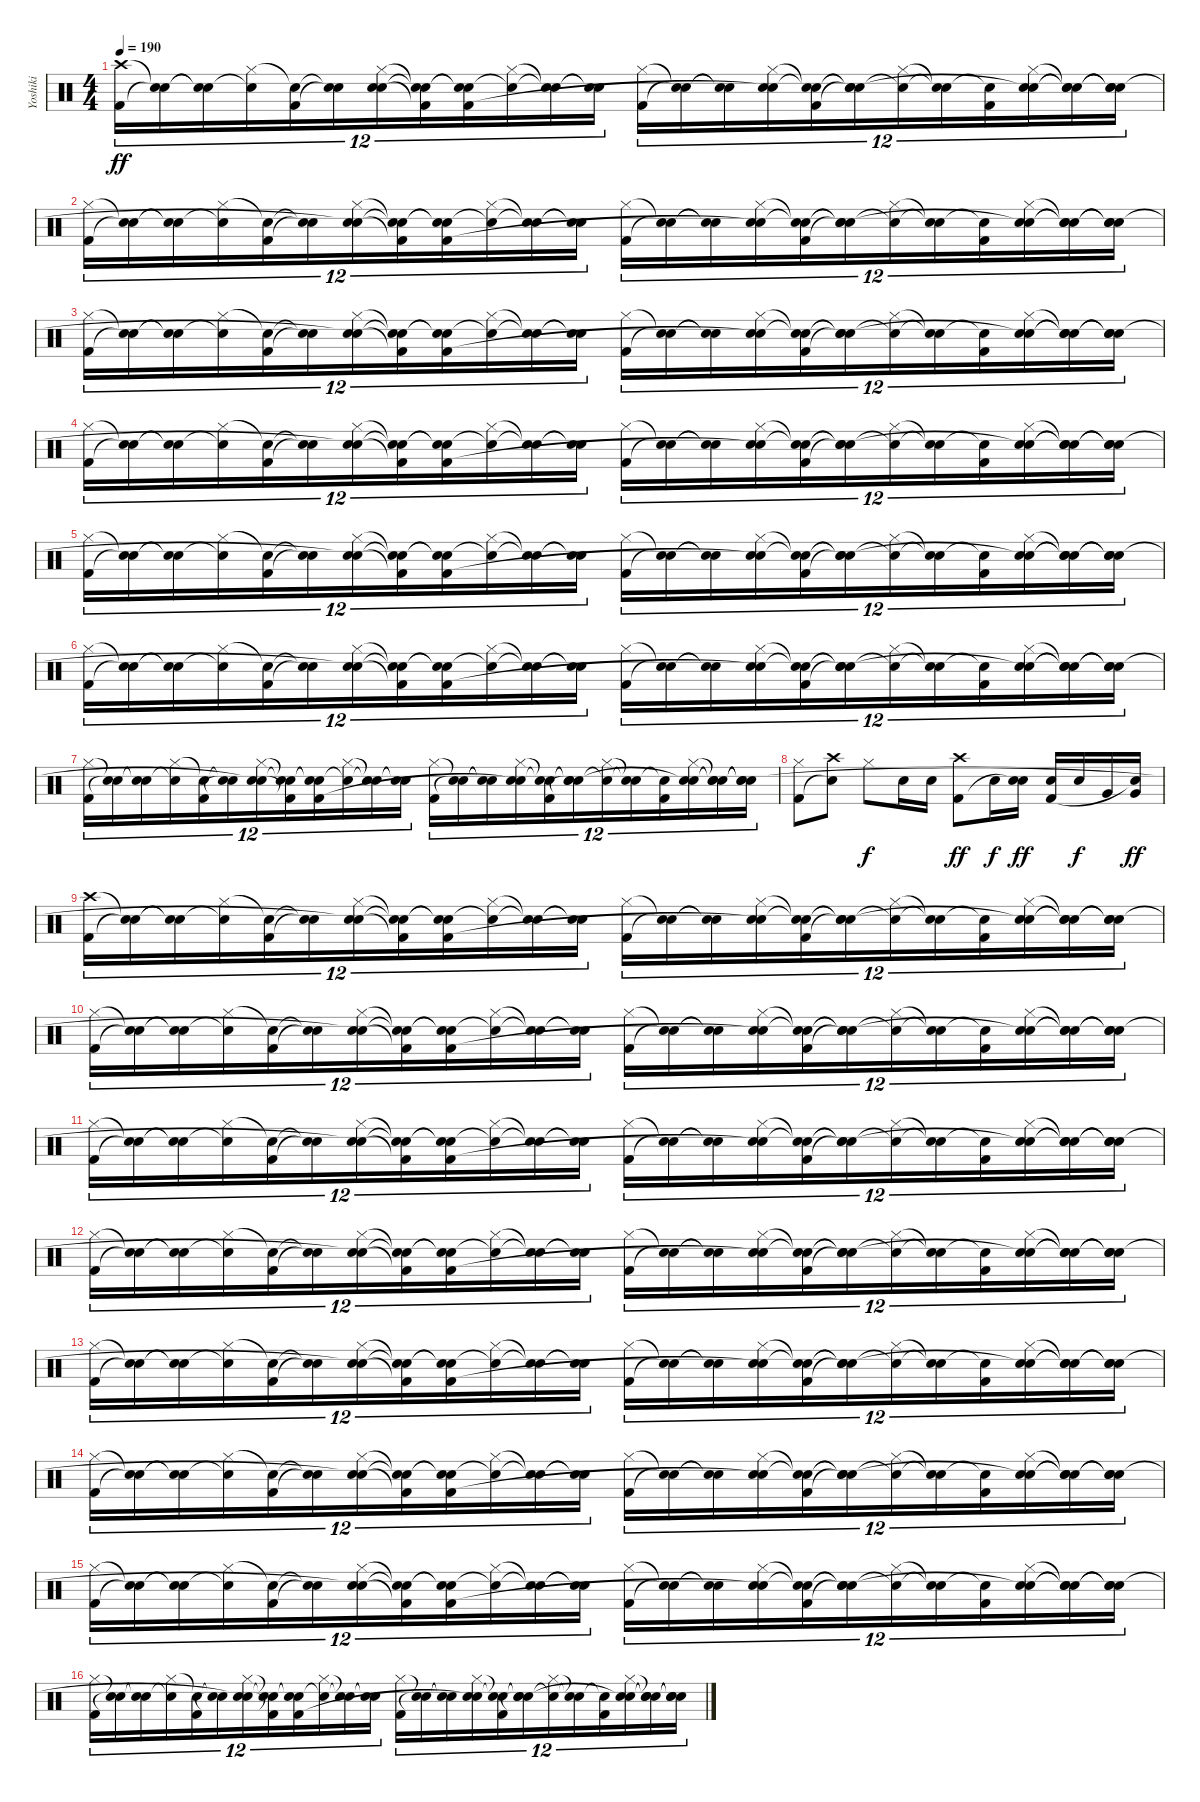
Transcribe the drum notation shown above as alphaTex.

\track ("Yoshiki" "Yoshiki") {instrument percussion}
\staff {score}
\articulation defaults
\ts (4 4)
\tempo 190
\clef neutral
\ks c
("Crash high (hit)" "Kick (hit) 2").16{tu (12 8) dy ff} ("Snare (hit)"{t} "Snare (hit)"{t}).16{tu (12 8)} ("Snare (hit)"{t} "Snare (hit)"{t}).16{tu (12 8)} ("Hi-Hat (closed)" "Snare (hit)"{t}).16{tu (12 8)} ("Snare (hit)"{t} "Kick (hit) 2").16{tu (12 8)} ("Snare (hit)"{t} "Snare (hit)"{t}).16{tu (12 8)} ("Hi-Hat (closed)" "Snare (hit) 2" "Snare (hit)"{t}).16{tu (12 8)} ("Snare (hit)"{t} "Snare (hit)"{t} "Kick (hit) 2"{t}).16{tu (12 8)} ("Snare (hit)"{t} "Snare (hit)"{t} "Kick (hit) 2").16{tu (12 8)} ("Hi-Hat (closed)" "Snare (hit)"{t}).16{tu (12 8)} ("Snare (hit)"{t} "Snare (hit)"{t}).16{tu (12 8)} ("Snare (hit)"{t} "Snare (hit)"{t}).16{tu (12 8)} ("Hi-Hat (closed)" "Kick (hit) 2").16{tu (12 8)} ("Snare (hit)"{t} "Snare (hit)"{t}).16{tu (12 8)} ("Snare (hit)"{t} "Snare (hit)"{t}).16{tu (12 8)} ("Hi-Hat (closed)" "Snare (hit) 2" "Snare (hit)"{t}).16{tu (12 8)} ("Snare (hit)"{t} "Snare (hit)"{t} "Kick (hit) 2").16{tu (12 8)} ("Snare (hit)"{t} "Snare (hit)"{t} "Snare (hit)"{t}).16{tu (12 8)} ("Hi-Hat (closed)" "Snare (hit)"{t}).16{tu (12 8)} ("Snare (hit)"{t} "Snare (hit)"{t}).16{tu (12 8)} ("Snare (hit)"{t} "Kick (hit) 2").16{tu (12 8)} ("Hi-Hat (closed)" "Snare (hit) 2" "Snare (hit)"{t}).16{tu (12 8)} ("Snare (hit)"{t} "Snare (hit)"{t} "Snare (hit)"{t}).16{tu (12 8)} ("Snare (hit)"{t} "Snare (hit)"{t} "Snare (hit)"{t}).16{tu (12 8)} |
("Hi-Hat (closed)" "Kick (hit) 2").16{tu (12 8)} ("Snare (hit)"{t} "Snare (hit)"{t}).16{tu (12 8)} ("Snare (hit)"{t} "Snare (hit)"{t}).16{tu (12 8)} ("Hi-Hat (closed)" "Snare (hit)"{t}).16{tu (12 8)} ("Snare (hit)"{t} "Kick (hit) 2").16{tu (12 8)} ("Snare (hit)"{t} "Snare (hit)"{t}).16{tu (12 8)} ("Hi-Hat (closed)" "Snare (hit) 2" "Snare (hit)"{t}).16{tu (12 8)} ("Snare (hit)"{t} "Snare (hit)"{t} "Kick (hit) 2"{t}).16{tu (12 8)} ("Snare (hit)"{t} "Snare (hit)"{t} "Kick (hit) 2").16{tu (12 8)} ("Hi-Hat (closed)" "Snare (hit)"{t}).16{tu (12 8)} ("Snare (hit)"{t} "Snare (hit)"{t}).16{tu (12 8)} ("Snare (hit)"{t} "Snare (hit)"{t}).16{tu (12 8)} ("Hi-Hat (closed)" "Kick (hit) 2").16{tu (12 8)} ("Snare (hit)"{t} "Snare (hit)"{t}).16{tu (12 8)} ("Snare (hit)"{t} "Snare (hit)"{t}).16{tu (12 8)} ("Hi-Hat (closed)" "Snare (hit) 2" "Snare (hit)"{t}).16{tu (12 8)} ("Snare (hit)"{t} "Snare (hit)"{t} "Kick (hit) 2").16{tu (12 8)} ("Snare (hit)"{t} "Snare (hit)"{t} "Snare (hit)"{t}).16{tu (12 8)} ("Hi-Hat (closed)" "Snare (hit)"{t}).16{tu (12 8)} ("Snare (hit)"{t} "Snare (hit)"{t}).16{tu (12 8)} ("Snare (hit)"{t} "Kick (hit) 2").16{tu (12 8)} ("Hi-Hat (closed)" "Snare (hit) 2" "Snare (hit)"{t}).16{tu (12 8)} ("Snare (hit)"{t} "Snare (hit)"{t} "Snare (hit)"{t}).16{tu (12 8)} ("Snare (hit)"{t} "Snare (hit)"{t} "Snare (hit)"{t}).16{tu (12 8)} |
("Hi-Hat (closed)" "Kick (hit) 2").16{tu (12 8)} ("Snare (hit)"{t} "Snare (hit)"{t}).16{tu (12 8)} ("Snare (hit)"{t} "Snare (hit)"{t}).16{tu (12 8)} ("Hi-Hat (closed)" "Snare (hit)"{t}).16{tu (12 8)} ("Snare (hit)"{t} "Kick (hit) 2").16{tu (12 8)} ("Snare (hit)"{t} "Snare (hit)"{t}).16{tu (12 8)} ("Hi-Hat (closed)" "Snare (hit) 2" "Snare (hit)"{t}).16{tu (12 8)} ("Snare (hit)"{t} "Snare (hit)"{t} "Kick (hit) 2"{t}).16{tu (12 8)} ("Snare (hit)"{t} "Snare (hit)"{t} "Kick (hit) 2").16{tu (12 8)} ("Hi-Hat (closed)" "Snare (hit)"{t}).16{tu (12 8)} ("Snare (hit)"{t} "Snare (hit)"{t}).16{tu (12 8)} ("Snare (hit)"{t} "Snare (hit)"{t}).16{tu (12 8)} ("Hi-Hat (closed)" "Kick (hit) 2").16{tu (12 8)} ("Snare (hit)"{t} "Snare (hit)"{t}).16{tu (12 8)} ("Snare (hit)"{t} "Snare (hit)"{t}).16{tu (12 8)} ("Hi-Hat (closed)" "Snare (hit) 2" "Snare (hit)"{t}).16{tu (12 8)} ("Snare (hit)"{t} "Snare (hit)"{t} "Kick (hit) 2").16{tu (12 8)} ("Snare (hit)"{t} "Snare (hit)"{t} "Snare (hit)"{t}).16{tu (12 8)} ("Hi-Hat (closed)" "Snare (hit)"{t}).16{tu (12 8)} ("Snare (hit)"{t} "Snare (hit)"{t}).16{tu (12 8)} ("Snare (hit)"{t} "Kick (hit) 2").16{tu (12 8)} ("Hi-Hat (closed)" "Snare (hit) 2" "Snare (hit)"{t}).16{tu (12 8)} ("Snare (hit)"{t} "Snare (hit)"{t} "Snare (hit)"{t}).16{tu (12 8)} ("Snare (hit)"{t} "Snare (hit)"{t} "Snare (hit)"{t}).16{tu (12 8)} |
("Hi-Hat (closed)" "Kick (hit) 2").16{tu (12 8)} ("Snare (hit)"{t} "Snare (hit)"{t}).16{tu (12 8)} ("Snare (hit)"{t} "Snare (hit)"{t}).16{tu (12 8)} ("Hi-Hat (closed)" "Snare (hit)"{t}).16{tu (12 8)} ("Snare (hit)"{t} "Kick (hit) 2").16{tu (12 8)} ("Snare (hit)"{t} "Snare (hit)"{t}).16{tu (12 8)} ("Hi-Hat (closed)" "Snare (hit) 2" "Snare (hit)"{t}).16{tu (12 8)} ("Snare (hit)"{t} "Snare (hit)"{t} "Kick (hit) 2"{t}).16{tu (12 8)} ("Snare (hit)"{t} "Snare (hit)"{t} "Kick (hit) 2").16{tu (12 8)} ("Hi-Hat (closed)" "Snare (hit)"{t}).16{tu (12 8)} ("Snare (hit)"{t} "Snare (hit)"{t}).16{tu (12 8)} ("Snare (hit)"{t} "Snare (hit)"{t}).16{tu (12 8)} ("Hi-Hat (closed)" "Kick (hit) 2").16{tu (12 8)} ("Snare (hit)"{t} "Snare (hit)"{t}).16{tu (12 8)} ("Snare (hit)"{t} "Snare (hit)"{t}).16{tu (12 8)} ("Hi-Hat (closed)" "Snare (hit) 2" "Snare (hit)"{t}).16{tu (12 8)} ("Snare (hit)"{t} "Snare (hit)"{t} "Kick (hit) 2").16{tu (12 8)} ("Snare (hit)"{t} "Snare (hit)"{t} "Snare (hit)"{t}).16{tu (12 8)} ("Hi-Hat (closed)" "Snare (hit)"{t}).16{tu (12 8)} ("Snare (hit)"{t} "Snare (hit)"{t}).16{tu (12 8)} ("Snare (hit)"{t} "Kick (hit) 2").16{tu (12 8)} ("Hi-Hat (closed)" "Snare (hit) 2" "Snare (hit)"{t}).16{tu (12 8)} ("Snare (hit)"{t} "Snare (hit)"{t} "Snare (hit)"{t}).16{tu (12 8)} ("Snare (hit)"{t} "Snare (hit)"{t} "Snare (hit)"{t}).16{tu (12 8)} |
("Hi-Hat (closed)" "Kick (hit) 2").16{tu (12 8)} ("Snare (hit)"{t} "Snare (hit)"{t}).16{tu (12 8)} ("Snare (hit)"{t} "Snare (hit)"{t}).16{tu (12 8)} ("Hi-Hat (closed)" "Snare (hit)"{t}).16{tu (12 8)} ("Snare (hit)"{t} "Kick (hit) 2").16{tu (12 8)} ("Snare (hit)"{t} "Snare (hit)"{t}).16{tu (12 8)} ("Hi-Hat (closed)" "Snare (hit) 2" "Snare (hit)"{t}).16{tu (12 8)} ("Snare (hit)"{t} "Snare (hit)"{t} "Kick (hit) 2"{t}).16{tu (12 8)} ("Snare (hit)"{t} "Snare (hit)"{t} "Kick (hit) 2").16{tu (12 8)} ("Hi-Hat (closed)" "Snare (hit)"{t}).16{tu (12 8)} ("Snare (hit)"{t} "Snare (hit)"{t}).16{tu (12 8)} ("Snare (hit)"{t} "Snare (hit)"{t}).16{tu (12 8)} ("Hi-Hat (closed)" "Kick (hit) 2").16{tu (12 8)} ("Snare (hit)"{t} "Snare (hit)"{t}).16{tu (12 8)} ("Snare (hit)"{t} "Snare (hit)"{t}).16{tu (12 8)} ("Hi-Hat (closed)" "Snare (hit) 2" "Snare (hit)"{t}).16{tu (12 8)} ("Snare (hit)"{t} "Snare (hit)"{t} "Kick (hit) 2").16{tu (12 8)} ("Snare (hit)"{t} "Snare (hit)"{t} "Snare (hit)"{t}).16{tu (12 8)} ("Hi-Hat (closed)" "Snare (hit)"{t}).16{tu (12 8)} ("Snare (hit)"{t} "Snare (hit)"{t}).16{tu (12 8)} ("Snare (hit)"{t} "Kick (hit) 2").16{tu (12 8)} ("Hi-Hat (closed)" "Snare (hit) 2" "Snare (hit)"{t}).16{tu (12 8)} ("Snare (hit)"{t} "Snare (hit)"{t} "Snare (hit)"{t}).16{tu (12 8)} ("Snare (hit)"{t} "Snare (hit)"{t} "Snare (hit)"{t}).16{tu (12 8)} |
("Hi-Hat (closed)" "Kick (hit) 2").16{tu (12 8)} ("Snare (hit)"{t} "Snare (hit)"{t}).16{tu (12 8)} ("Snare (hit)"{t} "Snare (hit)"{t}).16{tu (12 8)} ("Hi-Hat (closed)" "Snare (hit)"{t}).16{tu (12 8)} ("Snare (hit)"{t} "Kick (hit) 2").16{tu (12 8)} ("Snare (hit)"{t} "Snare (hit)"{t}).16{tu (12 8)} ("Hi-Hat (closed)" "Snare (hit) 2" "Snare (hit)"{t}).16{tu (12 8)} ("Snare (hit)"{t} "Snare (hit)"{t} "Kick (hit) 2"{t}).16{tu (12 8)} ("Snare (hit)"{t} "Snare (hit)"{t} "Kick (hit) 2").16{tu (12 8)} ("Hi-Hat (closed)" "Snare (hit)"{t}).16{tu (12 8)} ("Snare (hit)"{t} "Snare (hit)"{t}).16{tu (12 8)} ("Snare (hit)"{t} "Snare (hit)"{t}).16{tu (12 8)} ("Hi-Hat (closed)" "Kick (hit) 2").16{tu (12 8)} ("Snare (hit)"{t} "Snare (hit)"{t}).16{tu (12 8)} ("Snare (hit)"{t} "Snare (hit)"{t}).16{tu (12 8)} ("Hi-Hat (closed)" "Snare (hit) 2" "Snare (hit)"{t}).16{tu (12 8)} ("Snare (hit)"{t} "Snare (hit)"{t} "Kick (hit) 2").16{tu (12 8)} ("Snare (hit)"{t} "Snare (hit)"{t} "Snare (hit)"{t}).16{tu (12 8)} ("Hi-Hat (closed)" "Snare (hit)"{t}).16{tu (12 8)} ("Snare (hit)"{t} "Snare (hit)"{t}).16{tu (12 8)} ("Snare (hit)"{t} "Kick (hit) 2").16{tu (12 8)} ("Hi-Hat (closed)" "Snare (hit) 2" "Snare (hit)"{t}).16{tu (12 8)} ("Snare (hit)"{t} "Snare (hit)"{t} "Snare (hit)"{t}).16{tu (12 8)} ("Snare (hit)"{t} "Snare (hit)"{t} "Snare (hit)"{t}).16{tu (12 8)} |
("Hi-Hat (closed)" "Kick (hit) 2").16{tu (12 8)} ("Snare (hit)"{t} "Snare (hit)"{t}).16{tu (12 8)} ("Snare (hit)"{t} "Snare (hit)"{t}).16{tu (12 8)} ("Hi-Hat (closed)" "Snare (hit)"{t}).16{tu (12 8)} ("Snare (hit)"{t} "Kick (hit) 2").16{tu (12 8)} ("Snare (hit)"{t} "Snare (hit)"{t}).16{tu (12 8)} ("Hi-Hat (closed)" "Snare (hit) 2" "Snare (hit)"{t}).16{tu (12 8)} ("Snare (hit)"{t} "Snare (hit)"{t} "Kick (hit) 2"{t}).16{tu (12 8)} ("Snare (hit)"{t} "Snare (hit)"{t} "Kick (hit) 2").16{tu (12 8)} ("Hi-Hat (closed)" "Snare (hit)"{t}).16{tu (12 8)} ("Snare (hit)"{t} "Snare (hit)"{t}).16{tu (12 8)} ("Snare (hit)"{t} "Snare (hit)"{t}).16{tu (12 8)} ("Hi-Hat (closed)" "Kick (hit) 2").16{tu (12 8)} ("Snare (hit)"{t} "Snare (hit)"{t}).16{tu (12 8)} ("Snare (hit)"{t} "Snare (hit)"{t}).16{tu (12 8)} ("Hi-Hat (closed)" "Snare (hit) 2" "Snare (hit)"{t}).16{tu (12 8)} ("Snare (hit)"{t} "Snare (hit)"{t} "Kick (hit) 2").16{tu (12 8)} ("Snare (hit)"{t} "Snare (hit)"{t} "Snare (hit)"{t}).16{tu (12 8)} ("Hi-Hat (closed)" "Snare (hit)"{t}).16{tu (12 8)} ("Snare (hit)"{t} "Snare (hit)"{t}).16{tu (12 8)} ("Snare (hit)"{t} "Kick (hit) 2").16{tu (12 8)} ("Hi-Hat (closed)" "Snare (hit) 2" "Snare (hit)"{t}).16{tu (12 8)} ("Snare (hit)"{t} "Snare (hit)"{t} "Snare (hit)"{t}).16{tu (12 8)} ("Snare (hit)"{t} "Snare (hit)"{t} "Snare (hit)"{t}).16{tu (12 8)} |
("Hi-Hat (closed)" "Kick (hit) 2").8 ("Crash high (hit)" "Snare (hit)"{t}).8 "Hi-Hat (closed)".8{dy f} "Snare (hit) 2".16 "Snare (hit) 2".16 ("Crash high (hit)" "Kick (hit) 2").8{dy ff} "Snare (hit) 2".16{dy f} ("Snare (hit) 2" "Snare (hit)"{t}).16{dy ff} ("Snare (hit) 2" "Kick (hit) 2").16 "Snare (hit) 2".16{dy f} "Very Low Tom (hit)".16 ("Very Low Tom (hit)" "Snare (hit)"{t}).16{dy ff} |
("Crash high (hit)" "Kick (hit) 2").16{tu (12 8)} ("Snare (hit)"{t} "Snare (hit)"{t}).16{tu (12 8)} ("Snare (hit)"{t} "Snare (hit)"{t}).16{tu (12 8)} ("Hi-Hat (closed)" "Snare (hit)"{t}).16{tu (12 8)} ("Snare (hit)"{t} "Kick (hit) 2").16{tu (12 8)} ("Snare (hit)"{t} "Snare (hit)"{t}).16{tu (12 8)} ("Hi-Hat (closed)" "Snare (hit) 2" "Snare (hit)"{t}).16{tu (12 8)} ("Snare (hit)"{t} "Snare (hit)"{t} "Kick (hit) 2"{t}).16{tu (12 8)} ("Snare (hit)"{t} "Snare (hit)"{t} "Kick (hit) 2").16{tu (12 8)} ("Hi-Hat (closed)" "Snare (hit)"{t}).16{tu (12 8)} ("Snare (hit)"{t} "Snare (hit)"{t}).16{tu (12 8)} ("Snare (hit)"{t} "Snare (hit)"{t}).16{tu (12 8)} ("Hi-Hat (closed)" "Kick (hit) 2").16{tu (12 8)} ("Snare (hit)"{t} "Snare (hit)"{t}).16{tu (12 8)} ("Snare (hit)"{t} "Snare (hit)"{t}).16{tu (12 8)} ("Hi-Hat (closed)" "Snare (hit) 2" "Snare (hit)"{t}).16{tu (12 8)} ("Snare (hit)"{t} "Snare (hit)"{t} "Kick (hit) 2").16{tu (12 8)} ("Snare (hit)"{t} "Snare (hit)"{t} "Snare (hit)"{t}).16{tu (12 8)} ("Hi-Hat (closed)" "Snare (hit)"{t}).16{tu (12 8)} ("Snare (hit)"{t} "Snare (hit)"{t}).16{tu (12 8)} ("Snare (hit)"{t} "Kick (hit) 2").16{tu (12 8)} ("Hi-Hat (closed)" "Snare (hit) 2" "Snare (hit)"{t}).16{tu (12 8)} ("Snare (hit)"{t} "Snare (hit)"{t} "Snare (hit)"{t}).16{tu (12 8)} ("Snare (hit)"{t} "Snare (hit)"{t} "Snare (hit)"{t}).16{tu (12 8)} |
("Hi-Hat (closed)" "Kick (hit) 2").16{tu (12 8)} ("Snare (hit)"{t} "Snare (hit)"{t}).16{tu (12 8)} ("Snare (hit)"{t} "Snare (hit)"{t}).16{tu (12 8)} ("Hi-Hat (closed)" "Snare (hit)"{t}).16{tu (12 8)} ("Snare (hit)"{t} "Kick (hit) 2").16{tu (12 8)} ("Snare (hit)"{t} "Snare (hit)"{t}).16{tu (12 8)} ("Hi-Hat (closed)" "Snare (hit) 2" "Snare (hit)"{t}).16{tu (12 8)} ("Snare (hit)"{t} "Snare (hit)"{t} "Kick (hit) 2"{t}).16{tu (12 8)} ("Snare (hit)"{t} "Snare (hit)"{t} "Kick (hit) 2").16{tu (12 8)} ("Hi-Hat (closed)" "Snare (hit)"{t}).16{tu (12 8)} ("Snare (hit)"{t} "Snare (hit)"{t}).16{tu (12 8)} ("Snare (hit)"{t} "Snare (hit)"{t}).16{tu (12 8)} ("Hi-Hat (closed)" "Kick (hit) 2").16{tu (12 8)} ("Snare (hit)"{t} "Snare (hit)"{t}).16{tu (12 8)} ("Snare (hit)"{t} "Snare (hit)"{t}).16{tu (12 8)} ("Hi-Hat (closed)" "Snare (hit) 2" "Snare (hit)"{t}).16{tu (12 8)} ("Snare (hit)"{t} "Snare (hit)"{t} "Kick (hit) 2").16{tu (12 8)} ("Snare (hit)"{t} "Snare (hit)"{t} "Snare (hit)"{t}).16{tu (12 8)} ("Hi-Hat (closed)" "Snare (hit)"{t}).16{tu (12 8)} ("Snare (hit)"{t} "Snare (hit)"{t}).16{tu (12 8)} ("Snare (hit)"{t} "Kick (hit) 2").16{tu (12 8)} ("Hi-Hat (closed)" "Snare (hit) 2" "Snare (hit)"{t}).16{tu (12 8)} ("Snare (hit)"{t} "Snare (hit)"{t} "Snare (hit)"{t}).16{tu (12 8)} ("Snare (hit)"{t} "Snare (hit)"{t} "Snare (hit)"{t}).16{tu (12 8)} |
("Hi-Hat (closed)" "Kick (hit) 2").16{tu (12 8)} ("Snare (hit)"{t} "Snare (hit)"{t}).16{tu (12 8)} ("Snare (hit)"{t} "Snare (hit)"{t}).16{tu (12 8)} ("Hi-Hat (closed)" "Snare (hit)"{t}).16{tu (12 8)} ("Snare (hit)"{t} "Kick (hit) 2").16{tu (12 8)} ("Snare (hit)"{t} "Snare (hit)"{t}).16{tu (12 8)} ("Hi-Hat (closed)" "Snare (hit) 2" "Snare (hit)"{t}).16{tu (12 8)} ("Snare (hit)"{t} "Snare (hit)"{t} "Kick (hit) 2"{t}).16{tu (12 8)} ("Snare (hit)"{t} "Snare (hit)"{t} "Kick (hit) 2").16{tu (12 8)} ("Hi-Hat (closed)" "Snare (hit)"{t}).16{tu (12 8)} ("Snare (hit)"{t} "Snare (hit)"{t}).16{tu (12 8)} ("Snare (hit)"{t} "Snare (hit)"{t}).16{tu (12 8)} ("Hi-Hat (closed)" "Kick (hit) 2").16{tu (12 8)} ("Snare (hit)"{t} "Snare (hit)"{t}).16{tu (12 8)} ("Snare (hit)"{t} "Snare (hit)"{t}).16{tu (12 8)} ("Hi-Hat (closed)" "Snare (hit) 2" "Snare (hit)"{t}).16{tu (12 8)} ("Snare (hit)"{t} "Snare (hit)"{t} "Kick (hit) 2").16{tu (12 8)} ("Snare (hit)"{t} "Snare (hit)"{t} "Snare (hit)"{t}).16{tu (12 8)} ("Hi-Hat (closed)" "Snare (hit)"{t}).16{tu (12 8)} ("Snare (hit)"{t} "Snare (hit)"{t}).16{tu (12 8)} ("Snare (hit)"{t} "Kick (hit) 2").16{tu (12 8)} ("Hi-Hat (closed)" "Snare (hit) 2" "Snare (hit)"{t}).16{tu (12 8)} ("Snare (hit)"{t} "Snare (hit)"{t} "Snare (hit)"{t}).16{tu (12 8)} ("Snare (hit)"{t} "Snare (hit)"{t} "Snare (hit)"{t}).16{tu (12 8)} |
("Hi-Hat (closed)" "Kick (hit) 2").16{tu (12 8)} ("Snare (hit)"{t} "Snare (hit)"{t}).16{tu (12 8)} ("Snare (hit)"{t} "Snare (hit)"{t}).16{tu (12 8)} ("Hi-Hat (closed)" "Snare (hit)"{t}).16{tu (12 8)} ("Snare (hit)"{t} "Kick (hit) 2").16{tu (12 8)} ("Snare (hit)"{t} "Snare (hit)"{t}).16{tu (12 8)} ("Hi-Hat (closed)" "Snare (hit) 2" "Snare (hit)"{t}).16{tu (12 8)} ("Snare (hit)"{t} "Snare (hit)"{t} "Kick (hit) 2"{t}).16{tu (12 8)} ("Snare (hit)"{t} "Snare (hit)"{t} "Kick (hit) 2").16{tu (12 8)} ("Hi-Hat (closed)" "Snare (hit)"{t}).16{tu (12 8)} ("Snare (hit)"{t} "Snare (hit)"{t}).16{tu (12 8)} ("Snare (hit)"{t} "Snare (hit)"{t}).16{tu (12 8)} ("Hi-Hat (closed)" "Kick (hit) 2").16{tu (12 8)} ("Snare (hit)"{t} "Snare (hit)"{t}).16{tu (12 8)} ("Snare (hit)"{t} "Snare (hit)"{t}).16{tu (12 8)} ("Hi-Hat (closed)" "Snare (hit) 2" "Snare (hit)"{t}).16{tu (12 8)} ("Snare (hit)"{t} "Snare (hit)"{t} "Kick (hit) 2").16{tu (12 8)} ("Snare (hit)"{t} "Snare (hit)"{t} "Snare (hit)"{t}).16{tu (12 8)} ("Hi-Hat (closed)" "Snare (hit)"{t}).16{tu (12 8)} ("Snare (hit)"{t} "Snare (hit)"{t}).16{tu (12 8)} ("Snare (hit)"{t} "Kick (hit) 2").16{tu (12 8)} ("Hi-Hat (closed)" "Snare (hit) 2" "Snare (hit)"{t}).16{tu (12 8)} ("Snare (hit)"{t} "Snare (hit)"{t} "Snare (hit)"{t}).16{tu (12 8)} ("Snare (hit)"{t} "Snare (hit)"{t} "Snare (hit)"{t}).16{tu (12 8)} |
("Hi-Hat (closed)" "Kick (hit) 2").16{tu (12 8)} ("Snare (hit)"{t} "Snare (hit)"{t}).16{tu (12 8)} ("Snare (hit)"{t} "Snare (hit)"{t}).16{tu (12 8)} ("Hi-Hat (closed)" "Snare (hit)"{t}).16{tu (12 8)} ("Snare (hit)"{t} "Kick (hit) 2").16{tu (12 8)} ("Snare (hit)"{t} "Snare (hit)"{t}).16{tu (12 8)} ("Hi-Hat (closed)" "Snare (hit) 2" "Snare (hit)"{t}).16{tu (12 8)} ("Snare (hit)"{t} "Snare (hit)"{t} "Kick (hit) 2"{t}).16{tu (12 8)} ("Snare (hit)"{t} "Snare (hit)"{t} "Kick (hit) 2").16{tu (12 8)} ("Hi-Hat (closed)" "Snare (hit)"{t}).16{tu (12 8)} ("Snare (hit)"{t} "Snare (hit)"{t}).16{tu (12 8)} ("Snare (hit)"{t} "Snare (hit)"{t}).16{tu (12 8)} ("Hi-Hat (closed)" "Kick (hit) 2").16{tu (12 8)} ("Snare (hit)"{t} "Snare (hit)"{t}).16{tu (12 8)} ("Snare (hit)"{t} "Snare (hit)"{t}).16{tu (12 8)} ("Hi-Hat (closed)" "Snare (hit) 2" "Snare (hit)"{t}).16{tu (12 8)} ("Snare (hit)"{t} "Snare (hit)"{t} "Kick (hit) 2").16{tu (12 8)} ("Snare (hit)"{t} "Snare (hit)"{t} "Snare (hit)"{t}).16{tu (12 8)} ("Hi-Hat (closed)" "Snare (hit)"{t}).16{tu (12 8)} ("Snare (hit)"{t} "Snare (hit)"{t}).16{tu (12 8)} ("Snare (hit)"{t} "Kick (hit) 2").16{tu (12 8)} ("Hi-Hat (closed)" "Snare (hit) 2" "Snare (hit)"{t}).16{tu (12 8)} ("Snare (hit)"{t} "Snare (hit)"{t} "Snare (hit)"{t}).16{tu (12 8)} ("Snare (hit)"{t} "Snare (hit)"{t} "Snare (hit)"{t}).16{tu (12 8)} |
("Hi-Hat (closed)" "Kick (hit) 2").16{tu (12 8)} ("Snare (hit)"{t} "Snare (hit)"{t}).16{tu (12 8)} ("Snare (hit)"{t} "Snare (hit)"{t}).16{tu (12 8)} ("Hi-Hat (closed)" "Snare (hit)"{t}).16{tu (12 8)} ("Snare (hit)"{t} "Kick (hit) 2").16{tu (12 8)} ("Snare (hit)"{t} "Snare (hit)"{t}).16{tu (12 8)} ("Hi-Hat (closed)" "Snare (hit) 2" "Snare (hit)"{t}).16{tu (12 8)} ("Snare (hit)"{t} "Snare (hit)"{t} "Kick (hit) 2"{t}).16{tu (12 8)} ("Snare (hit)"{t} "Snare (hit)"{t} "Kick (hit) 2").16{tu (12 8)} ("Hi-Hat (closed)" "Snare (hit)"{t}).16{tu (12 8)} ("Snare (hit)"{t} "Snare (hit)"{t}).16{tu (12 8)} ("Snare (hit)"{t} "Snare (hit)"{t}).16{tu (12 8)} ("Hi-Hat (closed)" "Kick (hit) 2").16{tu (12 8)} ("Snare (hit)"{t} "Snare (hit)"{t}).16{tu (12 8)} ("Snare (hit)"{t} "Snare (hit)"{t}).16{tu (12 8)} ("Hi-Hat (closed)" "Snare (hit) 2" "Snare (hit)"{t}).16{tu (12 8)} ("Snare (hit)"{t} "Snare (hit)"{t} "Kick (hit) 2").16{tu (12 8)} ("Snare (hit)"{t} "Snare (hit)"{t} "Snare (hit)"{t}).16{tu (12 8)} ("Hi-Hat (closed)" "Snare (hit)"{t}).16{tu (12 8)} ("Snare (hit)"{t} "Snare (hit)"{t}).16{tu (12 8)} ("Snare (hit)"{t} "Kick (hit) 2").16{tu (12 8)} ("Hi-Hat (closed)" "Snare (hit) 2" "Snare (hit)"{t}).16{tu (12 8)} ("Snare (hit)"{t} "Snare (hit)"{t} "Snare (hit)"{t}).16{tu (12 8)} ("Snare (hit)"{t} "Snare (hit)"{t} "Snare (hit)"{t}).16{tu (12 8)} |
("Hi-Hat (closed)" "Kick (hit) 2").16{tu (12 8)} ("Snare (hit)"{t} "Snare (hit)"{t}).16{tu (12 8)} ("Snare (hit)"{t} "Snare (hit)"{t}).16{tu (12 8)} ("Hi-Hat (closed)" "Snare (hit)"{t}).16{tu (12 8)} ("Snare (hit)"{t} "Kick (hit) 2").16{tu (12 8)} ("Snare (hit)"{t} "Snare (hit)"{t}).16{tu (12 8)} ("Hi-Hat (closed)" "Snare (hit) 2" "Snare (hit)"{t}).16{tu (12 8)} ("Snare (hit)"{t} "Snare (hit)"{t} "Kick (hit) 2"{t}).16{tu (12 8)} ("Snare (hit)"{t} "Snare (hit)"{t} "Kick (hit) 2").16{tu (12 8)} ("Hi-Hat (closed)" "Snare (hit)"{t}).16{tu (12 8)} ("Snare (hit)"{t} "Snare (hit)"{t}).16{tu (12 8)} ("Snare (hit)"{t} "Snare (hit)"{t}).16{tu (12 8)} ("Hi-Hat (closed)" "Kick (hit) 2").16{tu (12 8)} ("Snare (hit)"{t} "Snare (hit)"{t}).16{tu (12 8)} ("Snare (hit)"{t} "Snare (hit)"{t}).16{tu (12 8)} ("Hi-Hat (closed)" "Snare (hit) 2" "Snare (hit)"{t}).16{tu (12 8)} ("Snare (hit)"{t} "Snare (hit)"{t} "Kick (hit) 2").16{tu (12 8)} ("Snare (hit)"{t} "Snare (hit)"{t} "Snare (hit)"{t}).16{tu (12 8)} ("Hi-Hat (closed)" "Snare (hit)"{t}).16{tu (12 8)} ("Snare (hit)"{t} "Snare (hit)"{t}).16{tu (12 8)} ("Snare (hit)"{t} "Kick (hit) 2").16{tu (12 8)} ("Hi-Hat (closed)" "Snare (hit) 2" "Snare (hit)"{t}).16{tu (12 8)} ("Snare (hit)"{t} "Snare (hit)"{t} "Snare (hit)"{t}).16{tu (12 8)} ("Snare (hit)"{t} "Snare (hit)"{t} "Snare (hit)"{t}).16{tu (12 8)} |
("Hi-Hat (closed)" "Kick (hit) 2").16{tu (12 8)} ("Snare (hit)"{t} "Snare (hit)"{t}).16{tu (12 8)} ("Snare (hit)"{t} "Snare (hit)"{t}).16{tu (12 8)} ("Hi-Hat (closed)" "Snare (hit)"{t}).16{tu (12 8)} ("Snare (hit)"{t} "Kick (hit) 2").16{tu (12 8)} ("Snare (hit)"{t} "Snare (hit)"{t}).16{tu (12 8)} ("Hi-Hat (closed)" "Snare (hit) 2" "Snare (hit)"{t}).16{tu (12 8)} ("Snare (hit)"{t} "Snare (hit)"{t} "Kick (hit) 2"{t}).16{tu (12 8)} ("Snare (hit)"{t} "Snare (hit)"{t} "Kick (hit) 2").16{tu (12 8)} ("Hi-Hat (closed)" "Snare (hit)"{t}).16{tu (12 8)} ("Snare (hit)"{t} "Snare (hit)"{t}).16{tu (12 8)} ("Snare (hit)"{t} "Snare (hit)"{t}).16{tu (12 8)} ("Hi-Hat (closed)" "Kick (hit) 2").16{tu (12 8)} ("Snare (hit)"{t} "Snare (hit)"{t}).16{tu (12 8)} ("Snare (hit)"{t} "Snare (hit)"{t}).16{tu (12 8)} ("Hi-Hat (closed)" "Snare (hit) 2" "Snare (hit)"{t}).16{tu (12 8)} ("Snare (hit)"{t} "Snare (hit)"{t} "Kick (hit) 2").16{tu (12 8)} ("Snare (hit)"{t} "Snare (hit)"{t} "Snare (hit)"{t}).16{tu (12 8)} ("Hi-Hat (closed)" "Snare (hit)"{t}).16{tu (12 8)} ("Snare (hit)"{t} "Snare (hit)"{t}).16{tu (12 8)} ("Snare (hit)"{t} "Kick (hit) 2").16{tu (12 8)} ("Hi-Hat (closed)" "Snare (hit) 2" "Snare (hit)"{t}).16{tu (12 8)} ("Snare (hit)"{t} "Snare (hit)"{t} "Snare (hit)"{t}).16{tu (12 8)} ("Snare (hit)"{t} "Snare (hit)"{t} "Snare (hit)"{t}).16{tu (12 8)}
